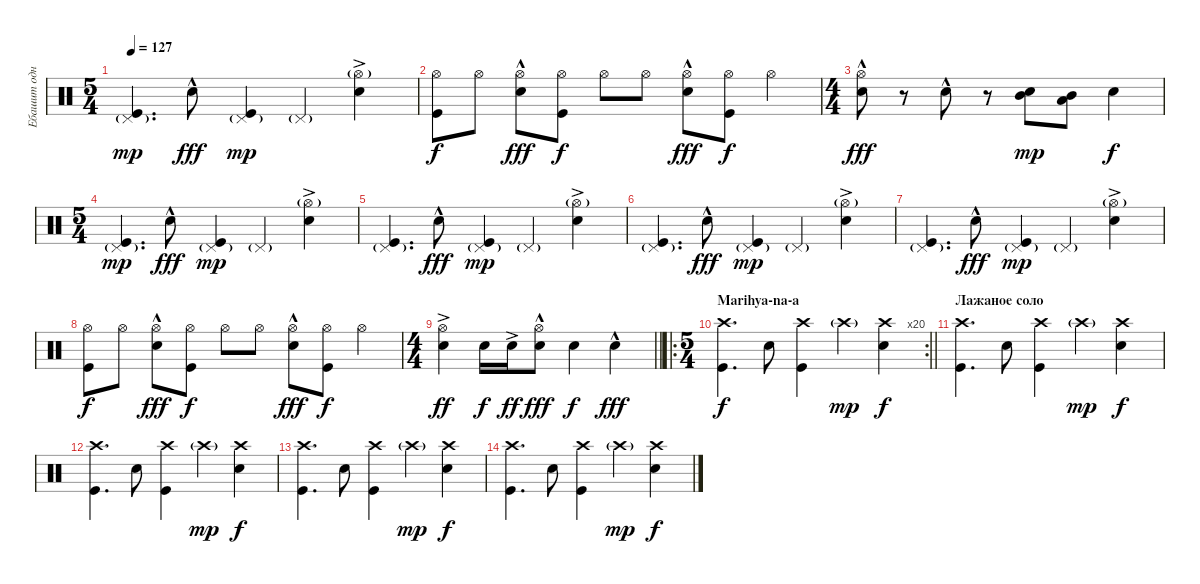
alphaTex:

\track ("Ебашит однако" "Ебашит одн") {instrument percussion}
\staff {score}
\articulation defaults
\ts (5 4)
\tempo 127
\clef neutral
\ks c
("Kick (hit)" "Pedal Hi-Hat (hit)"{g}).4{d dy mp} "Electric Snare (hit)"{hac}.8{dy fff} ("Kick (hit)" "Pedal Hi-Hat (hit)"{g}).4{dy mp} "Pedal Hi-Hat (hit)"{g}.4 ("Electric Snare (hit)"{ac} "Hi-Hat (open)"{g}).4 |
("Kick (hit)" "Hi-Hat (open)").8{dy f} "Hi-Hat (open)".8 ("Electric Snare (hit)"{hac} "Hi-Hat (open)").8{dy fff} ("Kick (hit)" "Hi-Hat (open)").8{dy f} "Hi-Hat (open)".8 "Hi-Hat (open)".8 ("Electric Snare (hit)"{hac} "Hi-Hat (open)").8{dy fff} ("Kick (hit)" "Hi-Hat (open)").8{dy f} "Hi-Hat (open)".4 |
\ts (4 4)
("Electric Snare (hit)"{hac} "Hi-Hat (open)").8{dy fff} r.8 "Electric Snare (hit)"{hac}.8 r.8 ("Mid Tom (hit)" "Electric Snare (hit)").8{dy mp} ("Low Tom (hit)" "Mid Tom (hit)").8 "Electric Snare (hit)".4{dy f} |
\ts (5 4)
("Kick (hit)" "Pedal Hi-Hat (hit)"{g}).4{d dy mp} "Electric Snare (hit)"{hac}.8{dy fff} ("Kick (hit)" "Pedal Hi-Hat (hit)"{g}).4{dy mp} "Pedal Hi-Hat (hit)"{g}.4 ("Electric Snare (hit)"{ac} "Hi-Hat (open)"{g}).4 |
("Kick (hit)" "Pedal Hi-Hat (hit)"{g}).4{d} "Electric Snare (hit)"{hac}.8{dy fff} ("Kick (hit)" "Pedal Hi-Hat (hit)"{g}).4{dy mp} "Pedal Hi-Hat (hit)"{g}.4 ("Electric Snare (hit)"{ac} "Hi-Hat (open)"{g}).4 |
("Kick (hit)" "Pedal Hi-Hat (hit)"{g}).4{d} "Electric Snare (hit)"{hac}.8{dy fff} ("Kick (hit)" "Pedal Hi-Hat (hit)"{g}).4{dy mp} "Pedal Hi-Hat (hit)"{g}.4 ("Electric Snare (hit)"{ac} "Hi-Hat (open)"{g}).4 |
("Kick (hit)" "Pedal Hi-Hat (hit)"{g}).4{d} "Electric Snare (hit)"{hac}.8{dy fff} ("Kick (hit)" "Pedal Hi-Hat (hit)"{g}).4{dy mp} "Pedal Hi-Hat (hit)"{g}.4 ("Electric Snare (hit)"{ac} "Hi-Hat (open)"{g}).4 |
("Kick (hit)" "Hi-Hat (open)").8{dy f} "Hi-Hat (open)".8 ("Electric Snare (hit)"{hac} "Hi-Hat (open)").8{dy fff} ("Kick (hit)" "Hi-Hat (open)").8{dy f} "Hi-Hat (open)".8 "Hi-Hat (open)".8 ("Electric Snare (hit)"{hac} "Hi-Hat (open)").8{dy fff} ("Kick (hit)" "Hi-Hat (open)").8{dy f} "Hi-Hat (open)".4 |
\ts (4 4)
\barLineRight lightlight
("Electric Snare (hit)"{ac} "Hi-Hat (open)").4{dy ff} "Electric Snare (hit)".16{dy f} "Electric Snare (hit)"{ac}.16{dy ff} ("Electric Snare (hit)"{hac} "Hi-Hat (open)").8{dy fff} "Electric Snare (hit)".4{dy f} "Electric Snare (hit)"{hac}.4{dy fff} |
\ro
\rc 20
\ts (5 4)
\section ("" "Marihya-na-a")
\barLineRight lightlight
("Kick (hit)" "Crash high (hit)").4{d dy f} "Electric Snare (hit)".8 ("Kick (hit)" "Crash high (hit)").4 "Crash high (hit)"{g}.4{dy mp} ("Electric Snare (hit)" "Crash high (hit)").4{dy f} |
\section ("" "Лажаное соло")
("Kick (hit)" "Crash high (hit)").4{d volume 0} "Electric Snare (hit)".8 ("Kick (hit)" "Crash high (hit)").4 "Crash high (hit)"{g}.4{dy mp} ("Electric Snare (hit)" "Crash high (hit)").4{dy f} |
("Kick (hit)" "Crash high (hit)").4{d} "Electric Snare (hit)".8 ("Kick (hit)" "Crash high (hit)").4 "Crash high (hit)"{g}.4{dy mp} ("Electric Snare (hit)" "Crash high (hit)").4{dy f} |
("Kick (hit)" "Crash high (hit)").4{d} "Electric Snare (hit)".8 ("Kick (hit)" "Crash high (hit)").4 "Crash high (hit)"{g}.4{dy mp} ("Electric Snare (hit)" "Crash high (hit)").4{dy f} |
("Kick (hit)" "Crash high (hit)").4{d} "Electric Snare (hit)".8 ("Kick (hit)" "Crash high (hit)").4 "Crash high (hit)"{g}.4{dy mp} ("Electric Snare (hit)" "Crash high (hit)").4{dy f}
